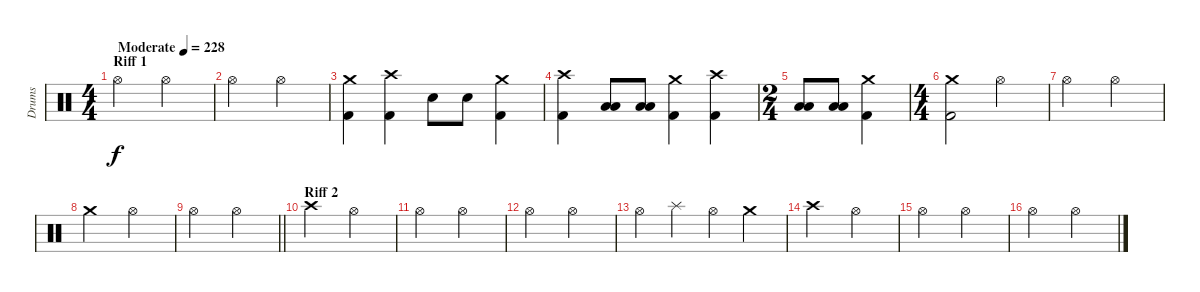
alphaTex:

\track ("Drums" "Drums") {instrument percussion}
\staff {score}
\articulation defaults
\ts (4 4)
\section ("" "Riff 1")
\tempo (228 "Moderate")
\clef neutral
\ks c "Hi-Hat (open)".2{dy f} "Hi-Hat (open)".2
|
"Hi-Hat (open)".2 "Hi-Hat (open)".2 |
("Kick (hit) 2" "Crash medium (hit)").4 ("Crash high (hit)" "Kick (hit) 2").4 "Electric Snare (hit)".8 "Electric Snare (hit)".8 ("Crash medium (hit)" "Kick (hit) 2").4 |
("Crash high (hit)" "Kick (hit) 2").4 ("Low Tom (hit)" "Low Floor Tom (hit)").8 ("Low Tom (hit)" "Low Floor Tom (hit)").8 ("Kick (hit) 2" "Crash medium (hit)").4 ("Crash high (hit)" "Kick (hit) 2").4 |
\ts (2 4)
("Low Tom (hit)" "Low Floor Tom (hit)").8 ("Low Tom (hit)" "Low Floor Tom (hit)").8 ("Kick (hit) 2" "Crash medium (hit)").4 |
\ts (4 4)
("Crash medium (hit)" "Kick (hit) 2").2 "Hi-Hat (open)".2 |
"Hi-Hat (open)".2 "Hi-Hat (open)".2 |
"Crash medium (hit)".2 "Hi-Hat (open)".2 |
\barLineRight lightlight "Hi-Hat (open)".2 "Hi-Hat (open)".2
|
\section ("" "Riff 2")
"Crash high (hit)".2 "Hi-Hat (open)".2 |
"Hi-Hat (open)".2 "Hi-Hat (open)".2 |
"Hi-Hat (open)".2 "Hi-Hat (open)".2 |
"Hi-Hat (open)".4 "Splash (hit)".4 "Hi-Hat (open)".4 "Crash medium (hit)".4 |
"Crash high (hit)".2 "Hi-Hat (open)".2 |
"Hi-Hat (open)".2 "Hi-Hat (open)".2 |
"Hi-Hat (open)".2 "Hi-Hat (open)".2
